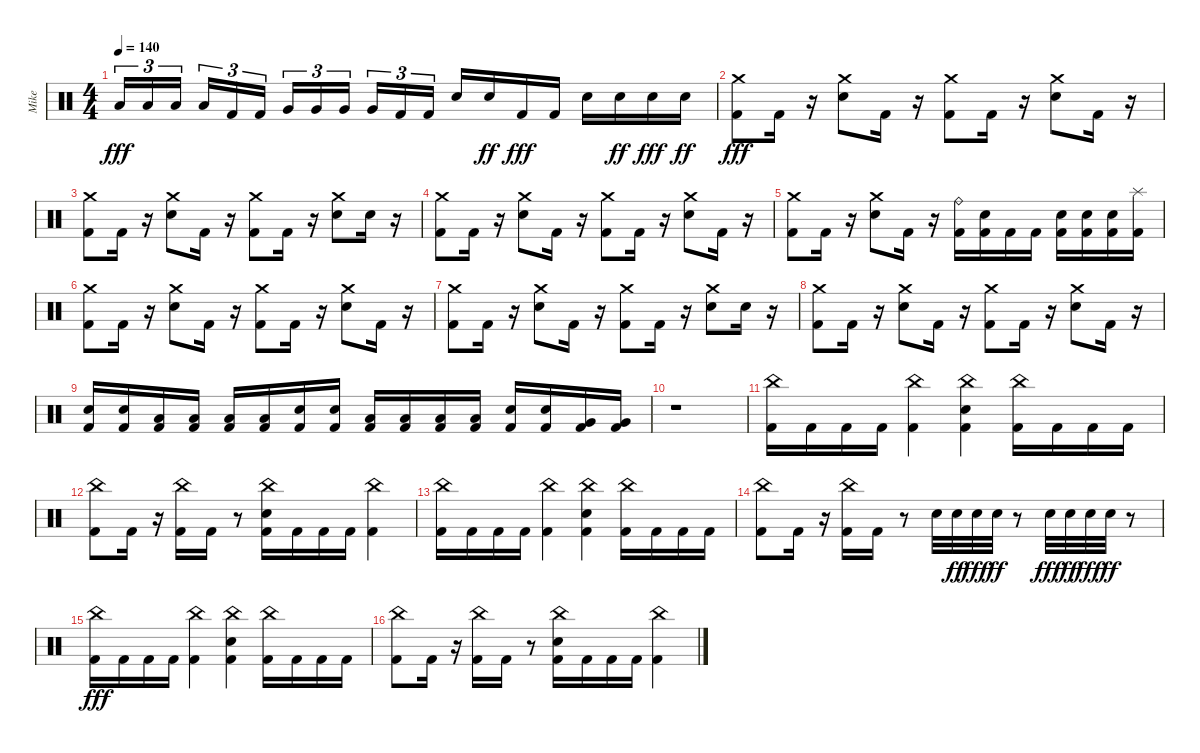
\track ("Mike" "Mike") {instrument percussion}
\staff {score}
\articulation defaults
\ts (4 4)
\tempo 140
\clef neutral
\ks c "Low Tom (hit)".16{tu (3 2) dy fff} "Low Tom (hit)".16{tu (3 2)} "Low Tom (hit)".16{tu (3 2) beam splitsecondary} "Low Tom (hit)".16{tu (3 2)} "Kick (hit) 2".16{tu (3 2)} "Kick (hit) 2".16{tu (3 2)} "Very Low Tom (hit)".16{tu (3 2)} "Very Low Tom (hit)".16{tu (3 2)} "Very Low Tom (hit)".16{tu (3 2) beam splitsecondary} "Very Low Tom (hit)".16{tu (3 2)} "Kick (hit) 2".16{tu (3 2)} "Kick (hit) 2".16{tu (3 2)} "Electric Snare (hit)".16 "Electric Snare (hit)".16{dy ff} "Kick (hit) 2".16{dy fff} "Kick (hit) 2".16 "Electric Snare (hit)".16 "Electric Snare (hit)".16{dy ff} "Electric Snare (hit)".16{dy fff} "Electric Snare (hit)".16{dy ff}
|
("Kick (hit) 2" "Crash medium (hit)").8{dy fff} "Kick (hit) 2".16 r.16 ("Electric Snare (hit)" "Crash medium (hit)").8 "Kick (hit) 2".16 r.16 ("Kick (hit) 2" "Crash medium (hit)").8 "Kick (hit) 2".16 r.16 ("Electric Snare (hit)" "Crash medium (hit)").8 "Kick (hit) 2".16 r.16 |
("Kick (hit) 2" "Crash medium (hit)").8 "Kick (hit) 2".16 r.16 ("Electric Snare (hit)" "Crash medium (hit)").8 "Kick (hit) 2".16 r.16 ("Kick (hit) 2" "Crash medium (hit)").8 "Kick (hit) 2".16 r.16 ("Electric Snare (hit)" "Crash medium (hit)").8 "Electric Snare (hit)".16 r.16 |
("Kick (hit) 2" "Crash medium (hit)").8 "Kick (hit) 2".16 r.16 ("Electric Snare (hit)" "Crash medium (hit)").8 "Kick (hit) 2".16 r.16 ("Kick (hit) 2" "Crash medium (hit)").8 "Kick (hit) 2".16 r.16 ("Electric Snare (hit)" "Crash medium (hit)").8 "Kick (hit) 2".16 r.16 |
("Kick (hit) 2" "Crash medium (hit)").8 "Kick (hit) 2".16 r.16 ("Electric Snare (hit)" "Crash medium (hit)").8 "Kick (hit) 2".16 r.16 ("Kick (hit) 2" "Ride (bell)").16 ("Kick (hit) 2" "Electric Snare (hit)").16 "Kick (hit) 2".16 "Kick (hit) 2".16 ("Kick (hit) 2" "Electric Snare (hit)").16 ("Kick (hit) 2" "Electric Snare (hit)").16 ("Kick (hit) 2" "Electric Snare (hit)").16 ("Kick (hit) 2" "Splash (hit)").16 |
("Kick (hit) 2" "Crash medium (hit)").8 "Kick (hit) 2".16 r.16 ("Electric Snare (hit)" "Crash medium (hit)").8 "Kick (hit) 2".16 r.16 ("Kick (hit) 2" "Crash medium (hit)").8 "Kick (hit) 2".16 r.16 ("Electric Snare (hit)" "Crash medium (hit)").8 "Kick (hit) 2".16 r.16 |
("Kick (hit) 2" "Crash medium (hit)").8 "Kick (hit) 2".16 r.16 ("Electric Snare (hit)" "Crash medium (hit)").8 "Kick (hit) 2".16 r.16 ("Kick (hit) 2" "Crash medium (hit)").8 "Kick (hit) 2".16 r.16 ("Electric Snare (hit)" "Crash medium (hit)").8 "Electric Snare (hit)".16 r.16 |
("Kick (hit) 2" "Crash medium (hit)").8 "Kick (hit) 2".16 r.16 ("Electric Snare (hit)" "Crash medium (hit)").8 "Kick (hit) 2".16 r.16 ("Kick (hit) 2" "Crash medium (hit)").8 "Kick (hit) 2".16 r.16 ("Electric Snare (hit)" "Crash medium (hit)").8 "Kick (hit) 2".16 r.16 |
("Kick (hit) 2" "Electric Snare (hit)").16 ("Kick (hit) 2" "Electric Snare (hit)").16 ("Kick (hit) 2" "Low Tom (hit)").16 ("Kick (hit) 2" "Low Tom (hit)").16 ("Kick (hit) 2" "Low Tom (hit)").16 ("Kick (hit) 2" "Low Tom (hit)").16 ("Kick (hit) 2" "Electric Snare (hit)").16 ("Kick (hit) 2" "Electric Snare (hit)").16 ("Kick (hit) 2" "Low Tom (hit)").16 ("Kick (hit) 2" "Low Tom (hit)").16 ("Kick (hit) 2" "Low Tom (hit)").16 ("Kick (hit) 2" "Low Tom (hit)").16 ("Kick (hit) 2" "Electric Snare (hit)").16 ("Kick (hit) 2" "Electric Snare (hit)").16 ("Kick (hit) 2" "Very Low Tom (hit)").16 ("Kick (hit) 2" "Very Low Tom (hit)").16 |
r.1 |
("Kick (hit) 2" "China (hit)").16 "Kick (hit) 2".16 "Kick (hit) 2".16 "Kick (hit) 2".16 ("Kick (hit) 2" "China (hit)").4 ("Kick (hit) 2" "Electric Snare (hit)" "China (hit)").4 ("Kick (hit) 2" "China (hit)").16 "Kick (hit) 2".16 "Kick (hit) 2".16 "Kick (hit) 2".16 |
("Kick (hit) 2" "China (hit)").8 "Kick (hit) 2".16 r.16 ("Kick (hit) 2" "China (hit)").16 "Kick (hit) 2".16 r.8 ("Kick (hit) 2" "Electric Snare (hit)" "China (hit)").16 "Kick (hit) 2".16 "Kick (hit) 2".16 "Kick (hit) 2".16 ("Kick (hit) 2" "China (hit)").4 |
("Kick (hit) 2" "China (hit)").16 "Kick (hit) 2".16 "Kick (hit) 2".16 "Kick (hit) 2".16 ("Kick (hit) 2" "China (hit)").4 ("Kick (hit) 2" "Electric Snare (hit)" "China (hit)").4 ("Kick (hit) 2" "China (hit)").16 "Kick (hit) 2".16 "Kick (hit) 2".16 "Kick (hit) 2".16 |
("Kick (hit) 2" "China (hit)").8 "Kick (hit) 2".16 r.16 ("Kick (hit) 2" "China (hit)").16 "Kick (hit) 2".16 r.8 "Electric Snare (hit)".32 "Electric Snare (hit)".32{dy ff} "Electric Snare (hit)".32{dy fff} "Electric Snare (hit)".32{dy ff} r.8 "Electric Snare (hit)".32{dy fff} "Electric Snare (hit)".32{dy ff} "Electric Snare (hit)".32{dy fff} "Electric Snare (hit)".32{dy ff} r.8 |
("Kick (hit) 2" "China (hit)").16{dy fff} "Kick (hit) 2".16 "Kick (hit) 2".16 "Kick (hit) 2".16 ("Kick (hit) 2" "China (hit)").4 ("Kick (hit) 2" "Electric Snare (hit)" "China (hit)").4 ("Kick (hit) 2" "China (hit)").16 "Kick (hit) 2".16 "Kick (hit) 2".16 "Kick (hit) 2".16 |
("Kick (hit) 2" "China (hit)").8 "Kick (hit) 2".16 r.16 ("Kick (hit) 2" "China (hit)").16 "Kick (hit) 2".16 r.8 ("Kick (hit) 2" "Electric Snare (hit)" "China (hit)").16 "Kick (hit) 2".16 "Kick (hit) 2".16 "Kick (hit) 2".16 ("Kick (hit) 2" "China (hit)").4
